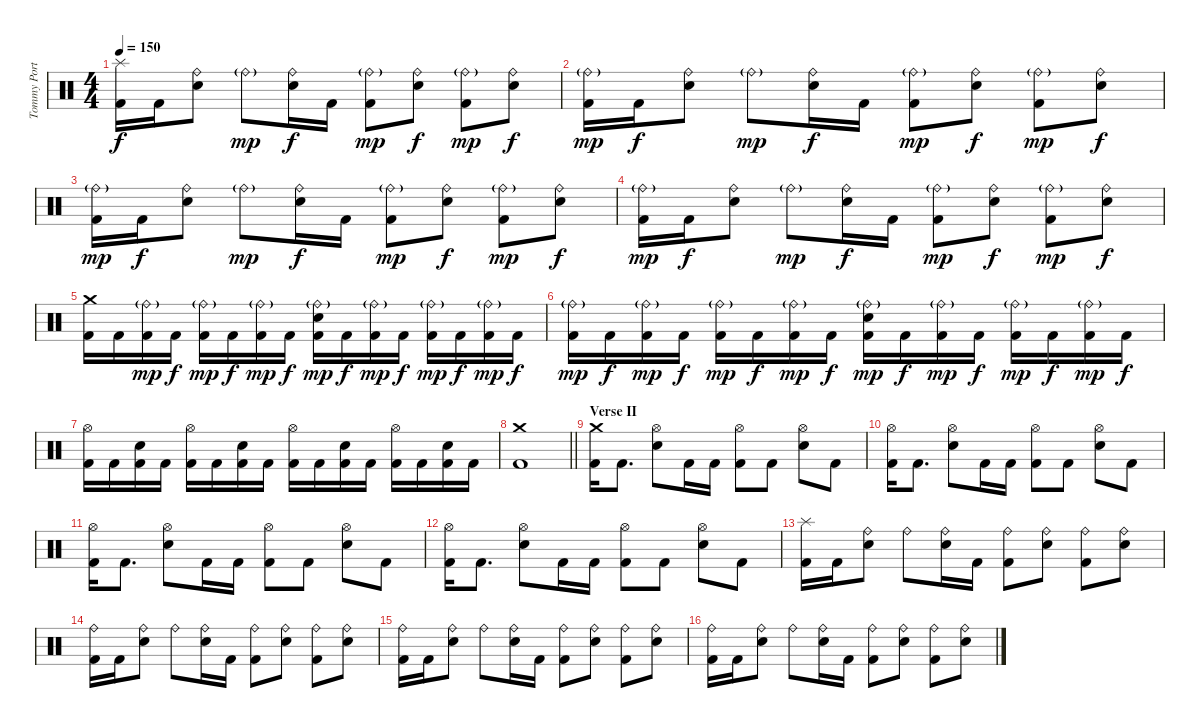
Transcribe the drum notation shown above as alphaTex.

\track ("Tommy Portimo" "Tommy Port") {instrument percussion}
\staff {score}
\articulation defaults
\ts (4 4)
\tempo 150
\clef neutral
\ks c
("Splash (hit)" "Kick (hit) 2").16{dy f} "Kick (hit) 2".16 ("Ride (bell)" "Electric Snare (hit)").8 "Ride (bell)"{g}.8{dy mp} ("Ride (bell)" "Electric Snare (hit)").16{dy f} "Kick (hit) 2".16 ("Ride (bell)"{g} "Kick (hit) 2").8{dy mp} ("Ride (bell)" "Electric Snare (hit)").8{dy f} ("Ride (bell)"{g} "Kick (hit) 2").8{dy mp} ("Ride (bell)" "Electric Snare (hit)").8{dy f} |
("Ride (bell)"{g} "Kick (hit) 2").16{dy mp} "Kick (hit) 2".16{dy f} ("Ride (bell)" "Electric Snare (hit)").8 "Ride (bell)"{g}.8{dy mp} ("Ride (bell)" "Electric Snare (hit)").16{dy f} "Kick (hit) 2".16 ("Ride (bell)"{g} "Kick (hit) 2").8{dy mp} ("Ride (bell)" "Electric Snare (hit)").8{dy f} ("Ride (bell)"{g} "Kick (hit) 2").8{dy mp} ("Ride (bell)" "Electric Snare (hit)").8{dy f} |
("Ride (bell)"{g} "Kick (hit) 2").16{dy mp} "Kick (hit) 2".16{dy f} ("Ride (bell)" "Electric Snare (hit)").8 "Ride (bell)"{g}.8{dy mp} ("Ride (bell)" "Electric Snare (hit)").16{dy f} "Kick (hit) 2".16 ("Ride (bell)"{g} "Kick (hit) 2").8{dy mp} ("Ride (bell)" "Electric Snare (hit)").8{dy f} ("Ride (bell)"{g} "Kick (hit) 2").8{dy mp} ("Ride (bell)" "Electric Snare (hit)").8{dy f} |
("Ride (bell)"{g} "Kick (hit) 2").16{dy mp} "Kick (hit) 2".16{dy f} ("Ride (bell)" "Electric Snare (hit)").8 "Ride (bell)"{g}.8{dy mp} ("Ride (bell)" "Electric Snare (hit)").16{dy f} "Kick (hit) 2".16 ("Ride (bell)"{g} "Kick (hit) 2").8{dy mp} ("Ride (bell)" "Electric Snare (hit)").8{dy f} ("Ride (bell)"{g} "Kick (hit) 2").8{dy mp} ("Ride (bell)" "Electric Snare (hit)").8{dy f} |
("Crash medium (hit)" "Kick (hit) 2").16 "Kick (hit) 2".16 ("Ride (bell)"{g} "Kick (hit) 2").16{dy mp} "Kick (hit) 2".16{dy f} ("Ride (bell)"{g} "Kick (hit) 2").16{dy mp} "Kick (hit) 2".16{dy f} ("Ride (bell)"{g} "Kick (hit) 2").16{dy mp} "Kick (hit) 2".16{dy f} ("Ride (bell)"{g} "Snare (hit) 2" "Kick (hit) 2").16{dy mp} "Kick (hit) 2".16{dy f} ("Ride (bell)"{g} "Kick (hit) 2").16{dy mp} "Kick (hit) 2".16{dy f} ("Ride (bell)"{g} "Kick (hit) 2").16{dy mp} "Kick (hit) 2".16{dy f} ("Ride (bell)"{g} "Kick (hit) 2").16{dy mp} "Kick (hit) 2".16{dy f} |
("Ride (bell)"{g} "Kick (hit) 2").16{dy mp} "Kick (hit) 2".16{dy f} ("Ride (bell)"{g} "Kick (hit) 2").16{dy mp} "Kick (hit) 2".16{dy f} ("Ride (bell)"{g} "Kick (hit) 2").16{dy mp} "Kick (hit) 2".16{dy f} ("Ride (bell)"{g} "Kick (hit) 2").16{dy mp} "Kick (hit) 2".16{dy f} ("Ride (bell)"{g} "Snare (hit) 2" "Kick (hit) 2").16{dy mp} "Kick (hit) 2".16{dy f} ("Ride (bell)"{g} "Kick (hit) 2").16{dy mp} "Kick (hit) 2".16{dy f} ("Ride (bell)"{g} "Kick (hit) 2").16{dy mp} "Kick (hit) 2".16{dy f} ("Ride (bell)"{g} "Kick (hit) 2").16{dy mp} "Kick (hit) 2".16{dy f} |
("Hi-Hat (open)" "Kick (hit) 2").16 "Kick (hit) 2".16 ("Snare (hit) 2" "Kick (hit) 2").16 "Kick (hit) 2".16 ("Hi-Hat (open)" "Kick (hit) 2").16 "Kick (hit) 2".16 ("Snare (hit) 2" "Kick (hit) 2").16 "Kick (hit) 2".16 ("Hi-Hat (open)" "Kick (hit) 2").16 "Kick (hit) 2".16 ("Snare (hit) 2" "Kick (hit) 2").16 "Kick (hit) 2".16 ("Hi-Hat (open)" "Kick (hit) 2").16 "Kick (hit) 2".16 ("Snare (hit) 2" "Kick (hit) 2").16 "Kick (hit) 2".16 |
\barLineRight lightlight
("Crash medium (hit)" "Kick (hit) 2").1 |
\section ("" "Verse II")
("Crash medium (hit)" "Kick (hit) 2").16 "Kick (hit) 2".8{d} ("Hi-Hat (open)" "Electric Snare (hit)").8 "Kick (hit) 2".16 "Kick (hit) 2".16 ("Hi-Hat (open)" "Kick (hit) 2").8 "Kick (hit) 2".8 ("Hi-Hat (open)" "Electric Snare (hit)").8 "Kick (hit) 2".8 |
("Hi-Hat (open)" "Kick (hit) 2").16 "Kick (hit) 2".8{d} ("Hi-Hat (open)" "Electric Snare (hit)").8 "Kick (hit) 2".16 "Kick (hit) 2".16 ("Hi-Hat (open)" "Kick (hit) 2").8 "Kick (hit) 2".8 ("Hi-Hat (open)" "Electric Snare (hit)").8 "Kick (hit) 2".8 |
("Hi-Hat (open)" "Kick (hit) 2").16 "Kick (hit) 2".8{d} ("Hi-Hat (open)" "Electric Snare (hit)").8 "Kick (hit) 2".16 "Kick (hit) 2".16 ("Hi-Hat (open)" "Kick (hit) 2").8 "Kick (hit) 2".8 ("Hi-Hat (open)" "Electric Snare (hit)").8 "Kick (hit) 2".8 |
("Hi-Hat (open)" "Kick (hit) 2").16 "Kick (hit) 2".8{d} ("Hi-Hat (open)" "Electric Snare (hit)").8 "Kick (hit) 2".16 "Kick (hit) 2".16 ("Hi-Hat (open)" "Kick (hit) 2").8 "Kick (hit) 2".8 ("Hi-Hat (open)" "Electric Snare (hit)").8 "Kick (hit) 2".8 |
("Splash (hit)" "Kick (hit) 2").16 "Kick (hit) 2".16 ("Ride (bell)" "Electric Snare (hit)").8 "Ride (bell)".8 ("Ride (bell)" "Electric Snare (hit)").16 "Kick (hit) 2".16 ("Ride (bell)" "Kick (hit) 2").8 ("Ride (bell)" "Electric Snare (hit)").8 ("Ride (bell)" "Kick (hit) 2").8 ("Ride (bell)" "Electric Snare (hit)").8 |
("Ride (bell)" "Kick (hit) 2").16 "Kick (hit) 2".16 ("Ride (bell)" "Electric Snare (hit)").8 "Ride (bell)".8 ("Ride (bell)" "Electric Snare (hit)").16 "Kick (hit) 2".16 ("Ride (bell)" "Kick (hit) 2").8 ("Ride (bell)" "Electric Snare (hit)").8 ("Ride (bell)" "Kick (hit) 2").8 ("Ride (bell)" "Electric Snare (hit)").8 |
("Ride (bell)" "Kick (hit) 2").16 "Kick (hit) 2".16 ("Ride (bell)" "Electric Snare (hit)").8 "Ride (bell)".8 ("Ride (bell)" "Electric Snare (hit)").16 "Kick (hit) 2".16 ("Ride (bell)" "Kick (hit) 2").8 ("Ride (bell)" "Electric Snare (hit)").8 ("Ride (bell)" "Kick (hit) 2").8 ("Ride (bell)" "Electric Snare (hit)").8 |
("Ride (bell)" "Kick (hit) 2").16 "Kick (hit) 2".16 ("Ride (bell)" "Electric Snare (hit)").8 "Ride (bell)".8 ("Ride (bell)" "Electric Snare (hit)").16 "Kick (hit) 2".16 ("Ride (bell)" "Kick (hit) 2").8 ("Ride (bell)" "Electric Snare (hit)").8 ("Ride (bell)" "Kick (hit) 2").8 ("Ride (bell)" "Electric Snare (hit)").8
